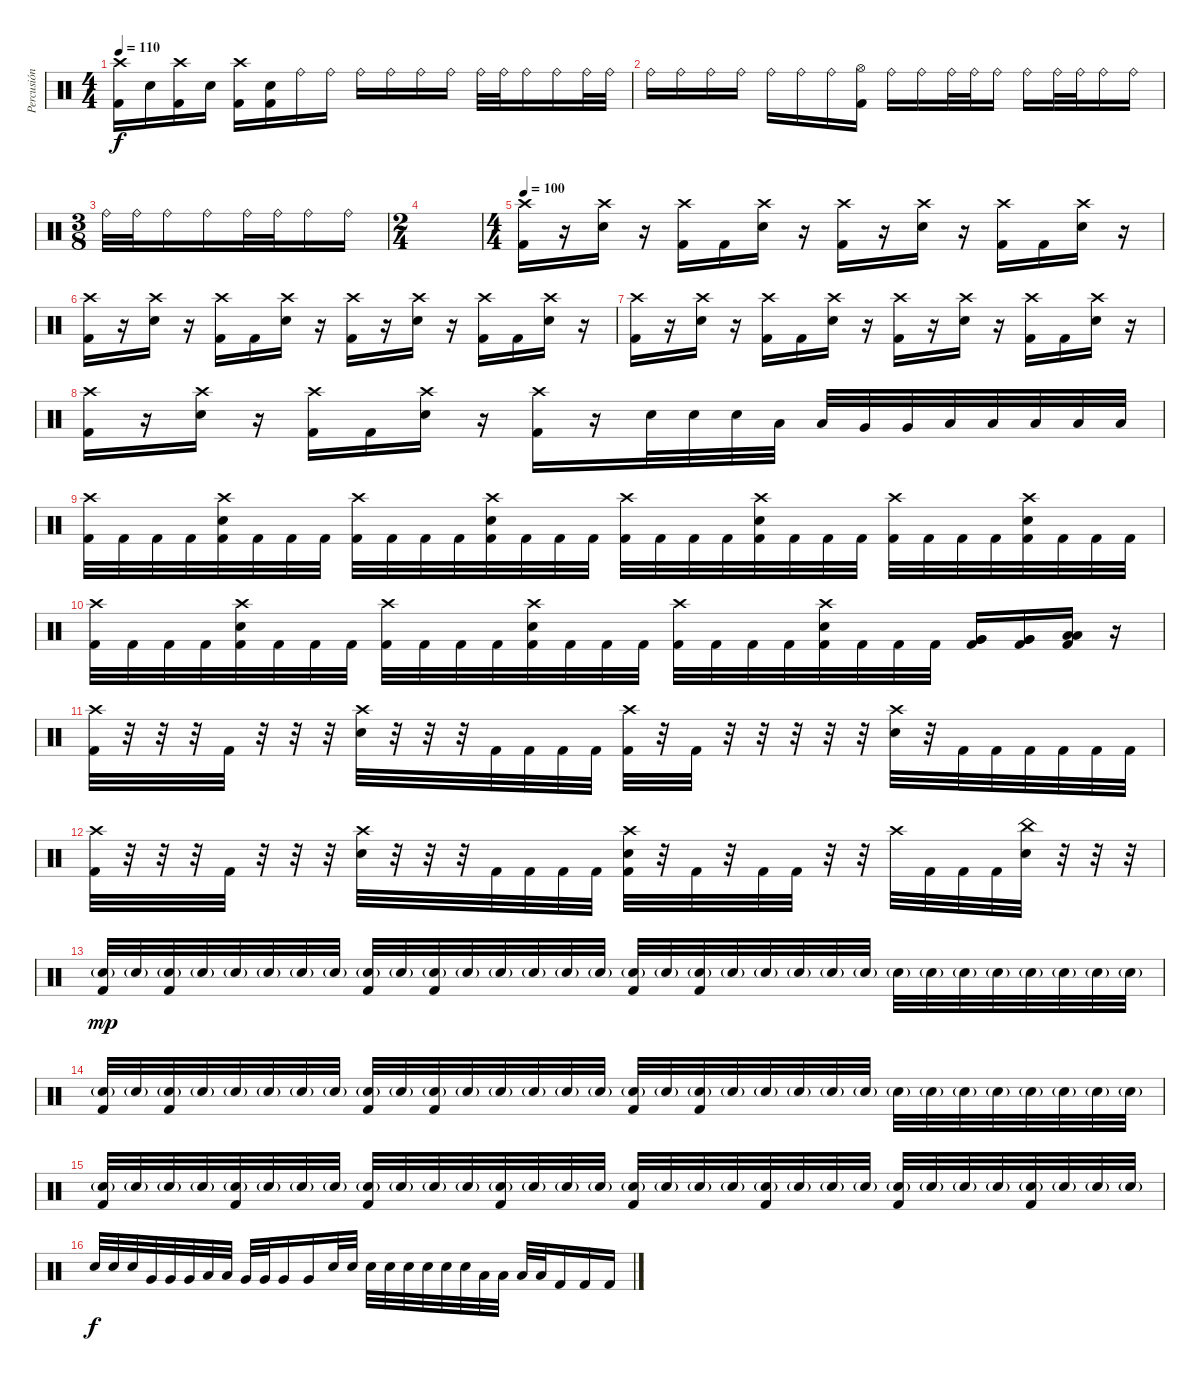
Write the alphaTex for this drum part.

\track ("Percusión" "Percusión") {instrument percussion}
\staff {score}
\articulation defaults
\ts (4 4)
\tempo 110
\clef neutral
\ks c
("Crash high (hit)" "Kick (hit) 2").16{dy f} "Electric Snare (hit)".16 ("Crash high (hit)" "Kick (hit) 2").16 "Electric Snare (hit)".16 ("Crash high (hit)" "Kick (hit) 2").16 ("Electric Snare (hit)" "Kick (hit) 2").16 "Ride (bell)".16 "Ride (bell)".16 "Ride (bell)".16 "Ride (bell)".16 "Ride (bell)".16 "Ride (bell)".16 "Ride (bell)".32 "Ride (bell)".32 "Ride (bell)".16 "Ride (bell)".16 "Ride (bell)".32 "Ride (bell)".32 |
"Ride (bell)".16 "Ride (bell)".16 "Ride (bell)".16 "Ride (bell)".16 "Ride (bell)".16 "Ride (bell)".16 "Ride (bell)".16 ("Hi-Hat (open)" "Kick (hit) 2").16 "Ride (bell)".16 "Ride (bell)".16 "Ride (bell)".32 "Ride (bell)".32 "Ride (bell)".16 "Ride (bell)".16 "Ride (bell)".32 "Ride (bell)".32 "Ride (bell)".16 "Ride (bell)".16 |
\ts (3 8)
"Ride (bell)".32 "Ride (bell)".32 "Ride (bell)".16 "Ride (bell)".16 "Ride (bell)".32 "Ride (bell)".32 "Ride (bell)".16 "Ride (bell)".16 |
\ts (2 4)
|
\ts (4 4)
\tempo 100
("Crash high (hit)" "Kick (hit) 2").16 r.16 ("Crash high (hit)" "Electric Snare (hit)").16 r.16 ("Crash high (hit)" "Kick (hit) 2").16 "Kick (hit) 2".16 ("Crash high (hit)" "Electric Snare (hit)").16 r.16 ("Crash high (hit)" "Kick (hit) 2").16 r.16 ("Crash high (hit)" "Electric Snare (hit)").16 r.16 ("Crash high (hit)" "Kick (hit) 2").16 "Kick (hit) 2".16 ("Crash high (hit)" "Electric Snare (hit)").16 r.16 |
("Crash high (hit)" "Kick (hit) 2").16 r.16 ("Crash high (hit)" "Electric Snare (hit)").16 r.16 ("Crash high (hit)" "Kick (hit) 2").16 "Kick (hit) 2".16 ("Crash high (hit)" "Electric Snare (hit)").16 r.16 ("Crash high (hit)" "Kick (hit) 2").16 r.16 ("Crash high (hit)" "Electric Snare (hit)").16 r.16 ("Crash high (hit)" "Kick (hit) 2").16 "Kick (hit) 2".16 ("Crash high (hit)" "Electric Snare (hit)").16 r.16 |
("Crash high (hit)" "Kick (hit) 2").16 r.16 ("Crash high (hit)" "Electric Snare (hit)").16 r.16 ("Crash high (hit)" "Kick (hit) 2").16 "Kick (hit) 2".16 ("Crash high (hit)" "Electric Snare (hit)").16 r.16 ("Crash high (hit)" "Kick (hit) 2").16 r.16 ("Crash high (hit)" "Electric Snare (hit)").16 r.16 ("Crash high (hit)" "Kick (hit) 2").16 "Kick (hit) 2".16 ("Crash high (hit)" "Electric Snare (hit)").16 r.16 |
("Crash high (hit)" "Kick (hit) 2").16 r.16 ("Crash high (hit)" "Electric Snare (hit)").16 r.16 ("Crash high (hit)" "Kick (hit) 2").16 "Kick (hit) 2".16 ("Crash high (hit)" "Electric Snare (hit)").16 r.16 ("Crash high (hit)" "Kick (hit) 2").16 r.16 "Electric Snare (hit)".32 "Electric Snare (hit)".32 "Electric Snare (hit)".32 "Low Tom (hit)".32 "Low Tom (hit)".32 "Very Low Tom (hit)".32 "Very Low Tom (hit)".32 "Low Tom (hit)".32 "Low Tom (hit)".32 "Low Tom (hit)".32 "Low Tom (hit)".32 "Low Tom (hit)".32 |
("Crash high (hit)" "Kick (hit) 2").32 "Kick (hit) 2".32 "Kick (hit) 2".32 "Kick (hit) 2".32 ("Crash high (hit)" "Electric Snare (hit)" "Kick (hit) 2").32 "Kick (hit) 2".32 "Kick (hit) 2".32 "Kick (hit) 2".32 ("Crash high (hit)" "Kick (hit) 2").32 "Kick (hit) 2".32 "Kick (hit) 2".32 "Kick (hit) 2".32 ("Crash high (hit)" "Electric Snare (hit)" "Kick (hit) 2").32 "Kick (hit) 2".32 "Kick (hit) 2".32 "Kick (hit) 2".32 ("Crash high (hit)" "Kick (hit) 2").32 "Kick (hit) 2".32 "Kick (hit) 2".32 "Kick (hit) 2".32 ("Crash high (hit)" "Electric Snare (hit)" "Kick (hit) 2").32 "Kick (hit) 2".32 "Kick (hit) 2".32 "Kick (hit) 2".32 ("Crash high (hit)" "Kick (hit) 2").32 "Kick (hit) 2".32 "Kick (hit) 2".32 "Kick (hit) 2".32 ("Crash high (hit)" "Electric Snare (hit)" "Kick (hit) 2").32 "Kick (hit) 2".32 "Kick (hit) 2".32 "Kick (hit) 2".32 |
("Crash high (hit)" "Kick (hit) 2").32 "Kick (hit) 2".32 "Kick (hit) 2".32 "Kick (hit) 2".32 ("Crash high (hit)" "Electric Snare (hit)" "Kick (hit) 2").32 "Kick (hit) 2".32 "Kick (hit) 2".32 "Kick (hit) 2".32 ("Crash high (hit)" "Kick (hit) 2").32 "Kick (hit) 2".32 "Kick (hit) 2".32 "Kick (hit) 2".32 ("Crash high (hit)" "Electric Snare (hit)" "Kick (hit) 2").32 "Kick (hit) 2".32 "Kick (hit) 2".32 "Kick (hit) 2".32 ("Crash high (hit)" "Kick (hit) 2").32 "Kick (hit) 2".32 "Kick (hit) 2".32 "Kick (hit) 2".32 ("Crash high (hit)" "Electric Snare (hit)" "Kick (hit) 2").32 "Kick (hit) 2".32 "Kick (hit) 2".32 "Kick (hit) 2".32 ("Very Low Tom (hit)" "Very Low Tom (hit)" "Kick (hit) 2").16 ("Very Low Tom (hit)" "Very Low Tom (hit)" "Kick (hit) 2").16 ("Low Tom (hit)" "Low Tom (hit)" "Kick (hit) 2").16 r.16 |
("Crash high (hit)" "Kick (hit) 2").32 r.32 r.32 r.32 "Kick (hit) 2".32 r.32 r.32 r.32 ("Crash high (hit)" "Electric Snare (hit)").32 r.32 r.32 r.32 "Kick (hit) 2".32 "Kick (hit) 2".32 "Kick (hit) 2".32 "Kick (hit) 2".32 ("Crash high (hit)" "Kick (hit) 2").32 r.32 "Kick (hit) 2".32 r.32 r.32 r.32 r.32 r.32 ("Crash high (hit)" "Electric Snare (hit)").32 r.32 "Kick (hit) 2".32 "Kick (hit) 2".32 "Kick (hit) 2".32 "Kick (hit) 2".32 "Kick (hit) 2".32 "Kick (hit) 2".32 |
("Crash high (hit)" "Kick (hit) 2").32 r.32 r.32 r.32 "Kick (hit) 2".32 r.32 r.32 r.32 ("Crash high (hit)" "Electric Snare (hit)").32 r.32 r.32 r.32 "Kick (hit) 2".32 "Kick (hit) 2".32 "Kick (hit) 2".32 "Kick (hit) 2".32 ("Crash high (hit)" "Electric Snare (hit)" "Kick (hit) 2").32 r.32 "Kick (hit) 2".32 r.32 "Kick (hit) 2".32 "Kick (hit) 2".32 r.32 r.32 "Crash high (hit)".32 "Kick (hit) 2".32 "Kick (hit) 2".32 "Kick (hit) 2".32 ("China (hit)" "Electric Snare (hit)").32 r.32 r.32 r.32 |
("Electric Snare (hit)"{g} "Kick (hit) 2").32{dy mp} "Electric Snare (hit)"{g}.32 ("Electric Snare (hit)"{g} "Kick (hit) 2").32 "Electric Snare (hit)"{g}.32 "Electric Snare (hit)"{g}.32 "Electric Snare (hit)"{g}.32 "Electric Snare (hit)"{g}.32 "Electric Snare (hit)"{g}.32 ("Electric Snare (hit)"{g} "Kick (hit) 2").32 "Electric Snare (hit)"{g}.32 ("Electric Snare (hit)"{g} "Kick (hit) 2").32 "Electric Snare (hit)"{g}.32 "Electric Snare (hit)"{g}.32 "Electric Snare (hit)"{g}.32 "Electric Snare (hit)"{g}.32 "Electric Snare (hit)"{g}.32 ("Electric Snare (hit)"{g} "Kick (hit) 2").32 "Electric Snare (hit)"{g}.32 ("Electric Snare (hit)"{g} "Kick (hit) 2").32 "Electric Snare (hit)"{g}.32 "Electric Snare (hit)"{g}.32 "Electric Snare (hit)"{g}.32 "Electric Snare (hit)"{g}.32 "Electric Snare (hit)"{g}.32 "Electric Snare (hit)"{g}.32 "Electric Snare (hit)"{g}.32 "Electric Snare (hit)"{g}.32 "Electric Snare (hit)"{g}.32 "Electric Snare (hit)"{g}.32 "Electric Snare (hit)"{g}.32 "Electric Snare (hit)"{g}.32 "Electric Snare (hit)"{g}.32 |
("Electric Snare (hit)"{g} "Kick (hit) 2").32 "Electric Snare (hit)"{g}.32 ("Electric Snare (hit)"{g} "Kick (hit) 2").32 "Electric Snare (hit)"{g}.32 "Electric Snare (hit)"{g}.32 "Electric Snare (hit)"{g}.32 "Electric Snare (hit)"{g}.32 "Electric Snare (hit)"{g}.32 ("Electric Snare (hit)"{g} "Kick (hit) 2").32 "Electric Snare (hit)"{g}.32 ("Electric Snare (hit)"{g} "Kick (hit) 2").32 "Electric Snare (hit)"{g}.32 "Electric Snare (hit)"{g}.32 "Electric Snare (hit)"{g}.32 "Electric Snare (hit)"{g}.32 "Electric Snare (hit)"{g}.32 ("Electric Snare (hit)"{g} "Kick (hit) 2").32 "Electric Snare (hit)"{g}.32 ("Electric Snare (hit)"{g} "Kick (hit) 2").32 "Electric Snare (hit)"{g}.32 "Electric Snare (hit)"{g}.32 "Electric Snare (hit)"{g}.32 "Electric Snare (hit)"{g}.32 "Electric Snare (hit)"{g}.32 "Electric Snare (hit)"{g}.32 "Electric Snare (hit)"{g}.32 "Electric Snare (hit)"{g}.32 "Electric Snare (hit)"{g}.32 "Electric Snare (hit)"{g}.32 "Electric Snare (hit)"{g}.32 "Electric Snare (hit)"{g}.32 "Electric Snare (hit)"{g}.32 |
("Electric Snare (hit)"{g} "Kick (hit) 2").32 "Electric Snare (hit)"{g}.32 "Electric Snare (hit)"{g}.32 "Electric Snare (hit)"{g}.32 ("Electric Snare (hit)"{g} "Kick (hit) 2").32 "Electric Snare (hit)"{g}.32 "Electric Snare (hit)"{g}.32 "Electric Snare (hit)"{g}.32 ("Electric Snare (hit)"{g} "Kick (hit) 2").32 "Electric Snare (hit)"{g}.32 "Electric Snare (hit)"{g}.32 "Electric Snare (hit)"{g}.32 ("Electric Snare (hit)"{g} "Kick (hit) 2").32 "Electric Snare (hit)"{g}.32 "Electric Snare (hit)"{g}.32 "Electric Snare (hit)"{g}.32 ("Electric Snare (hit)"{g} "Kick (hit) 2").32 "Electric Snare (hit)"{g}.32 "Electric Snare (hit)"{g}.32 "Electric Snare (hit)"{g}.32 ("Electric Snare (hit)"{g} "Kick (hit) 2").32 "Electric Snare (hit)"{g}.32 "Electric Snare (hit)"{g}.32 "Electric Snare (hit)"{g}.32 ("Electric Snare (hit)"{g} "Kick (hit) 2").32 "Electric Snare (hit)"{g}.32 "Electric Snare (hit)"{g}.32 "Electric Snare (hit)"{g}.32 ("Electric Snare (hit)"{g} "Kick (hit) 2").32 "Electric Snare (hit)"{g}.32 "Electric Snare (hit)"{g}.32 "Electric Snare (hit)"{g}.32 |
"Electric Snare (hit)".32{dy f} "Electric Snare (hit)".32 "Electric Snare (hit)".32 "Very Low Tom (hit)".32 "Very Low Tom (hit)".32 "Very Low Tom (hit)".32 "Low Tom (hit)".32 "Low Tom (hit)".32 "Very Low Tom (hit)".32 "Very Low Tom (hit)".32 "Very Low Tom (hit)".16 "Very Low Tom (hit)".16 "Electric Snare (hit)".32 "Electric Snare (hit)".32 "Electric Snare (hit)".32 "Electric Snare (hit)".32 "Electric Snare (hit)".32 "Electric Snare (hit)".32 "Electric Snare (hit)".32 "Electric Snare (hit)".32 "Low Tom (hit)".32 "Low Tom (hit)".32 "Low Tom (hit)".32 "Low Tom (hit)".32 "Kick (hit) 2".16 "Kick (hit) 2".16 "Kick (hit) 2".16
